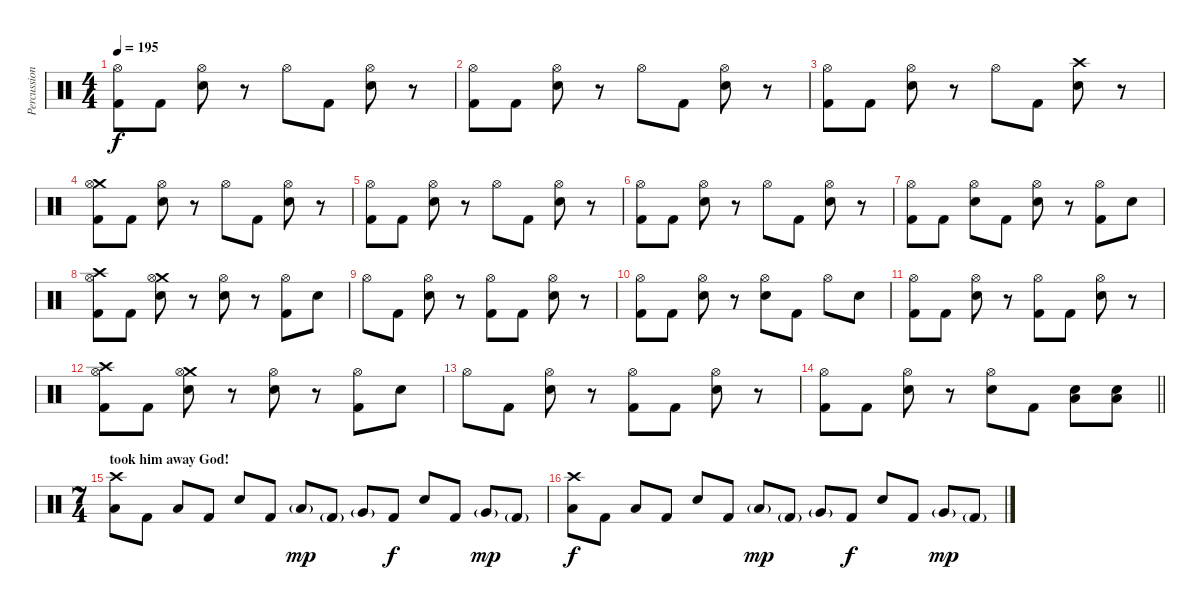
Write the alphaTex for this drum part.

\track ("Percussion" "Percussion") {instrument percussion}
\staff {score}
\articulation defaults
\ts (4 4)
\tempo 195
\clef neutral
\ks c
("Hi-Hat (open)" "Kick (hit) 2").8{dy f} "Kick (hit) 2".8 ("Hi-Hat (open)" "Snare (hit) 2").8 r.8 "Hi-Hat (open)".8 "Kick (hit) 2".8 ("Hi-Hat (open)" "Snare (hit) 2").8 r.8 |
("Hi-Hat (open)" "Kick (hit) 2").8 "Kick (hit) 2".8 ("Hi-Hat (open)" "Snare (hit) 2").8 r.8 "Hi-Hat (open)".8 "Kick (hit) 2".8 ("Hi-Hat (open)" "Snare (hit) 2").8 r.8 |
("Hi-Hat (open)" "Kick (hit) 2").8 "Kick (hit) 2".8 ("Hi-Hat (open)" "Snare (hit) 2").8 r.8 "Hi-Hat (open)".8 "Kick (hit) 2".8 ("Crash high (hit)" "Snare (hit) 2").8 r.8 |
("Crash medium (hit)" "Hi-Hat (open)" "Kick (hit) 2").8 "Kick (hit) 2".8 ("Hi-Hat (open)" "Snare (hit) 2").8 r.8 "Hi-Hat (open)".8 "Kick (hit) 2".8 ("Hi-Hat (open)" "Snare (hit) 2").8 r.8 |
("Hi-Hat (open)" "Kick (hit) 2").8 "Kick (hit) 2".8 ("Hi-Hat (open)" "Snare (hit) 2").8 r.8 "Hi-Hat (open)".8 "Kick (hit) 2".8 ("Hi-Hat (open)" "Snare (hit) 2").8 r.8 |
("Hi-Hat (open)" "Kick (hit) 2").8 "Kick (hit) 2".8 ("Hi-Hat (open)" "Snare (hit) 2").8 r.8 "Hi-Hat (open)".8 "Kick (hit) 2".8 ("Hi-Hat (open)" "Snare (hit) 2").8 r.8 |
("Hi-Hat (open)" "Kick (hit) 2").8 "Kick (hit) 2".8 ("Hi-Hat (open)" "Snare (hit) 2").8 "Kick (hit) 2".8 ("Hi-Hat (open)" "Snare (hit) 2").8 r.8 ("Hi-Hat (open)" "Kick (hit) 2").8 "Snare (hit) 2".8 |
("Crash high (hit)" "Hi-Hat (open)" "Kick (hit) 2").8 "Kick (hit) 2".8 ("Crash medium (hit)" "Hi-Hat (open)" "Snare (hit) 2").8 r.8 ("Hi-Hat (open)" "Snare (hit) 2").8 r.8 ("Hi-Hat (open)" "Kick (hit) 2").8 "Snare (hit) 2".8 |
"Hi-Hat (open)".8 "Kick (hit) 2".8 ("Hi-Hat (open)" "Snare (hit) 2").8 r.8 ("Hi-Hat (open)" "Kick (hit) 2").8 "Kick (hit) 2".8 ("Hi-Hat (open)" "Snare (hit) 2").8 r.8 |
("Hi-Hat (open)" "Kick (hit) 2").8 "Kick (hit) 2".8 ("Hi-Hat (open)" "Snare (hit) 2").8 r.8 ("Hi-Hat (open)" "Snare (hit) 2").8 "Kick (hit) 2".8 "Hi-Hat (open)".8 "Snare (hit) 2".8 |
("Hi-Hat (open)" "Kick (hit) 2").8 "Kick (hit) 2".8 ("Hi-Hat (open)" "Snare (hit) 2").8 r.8 ("Hi-Hat (open)" "Kick (hit) 2").8 "Kick (hit) 2".8 ("Hi-Hat (open)" "Snare (hit) 2").8 r.8 |
("Crash high (hit)" "Hi-Hat (open)" "Kick (hit) 2").8 "Kick (hit) 2".8 ("Crash medium (hit)" "Hi-Hat (open)" "Snare (hit) 2").8 r.8 ("Hi-Hat (open)" "Snare (hit) 2").8 r.8 ("Hi-Hat (open)" "Kick (hit) 2").8 "Snare (hit) 2".8 |
"Hi-Hat (open)".8 "Kick (hit) 2".8 ("Hi-Hat (open)" "Snare (hit) 2").8 r.8 ("Hi-Hat (open)" "Kick (hit) 2").8 "Kick (hit) 2".8 ("Hi-Hat (open)" "Snare (hit) 2").8 r.8 |
\barLineRight lightlight
("Hi-Hat (open)" "Kick (hit) 2").8 "Kick (hit) 2".8 ("Hi-Hat (open)" "Snare (hit) 2").8 r.8 ("Hi-Hat (open)" "Snare (hit) 2").8 "Kick (hit) 2".8 ("Low Tom (hit)" "Snare (hit) 2").8 ("Low Tom (hit)" "Snare (hit) 2").8 |
\ts (7 4)
\section ("" "took him away God!")
("Crash high (hit)" "Low Tom (hit)").8 "Kick (hit) 2".8 "Low Tom (hit)".8 "Kick (hit) 2".8 "Snare (hit) 2".8 "Kick (hit) 2".8 "Low Tom (hit)"{g}.8{dy mp} "Kick (hit) 2"{g}.8 "Very Low Tom (hit)"{g}.8 "Kick (hit) 2".8{dy f} "Snare (hit) 2".8 "Kick (hit) 2".8 "Very Low Tom (hit)"{g}.8{dy mp} "Kick (hit) 2"{g}.8 |
("Crash high (hit)" "Low Tom (hit)").8{dy f} "Kick (hit) 2".8 "Low Tom (hit)".8 "Kick (hit) 2".8 "Snare (hit) 2".8 "Kick (hit) 2".8 "Low Tom (hit)"{g}.8{dy mp} "Kick (hit) 2"{g}.8 "Very Low Tom (hit)"{g}.8 "Kick (hit) 2".8{dy f} "Snare (hit) 2".8 "Kick (hit) 2".8 "Very Low Tom (hit)"{g}.8{dy mp} "Kick (hit) 2"{g}.8
